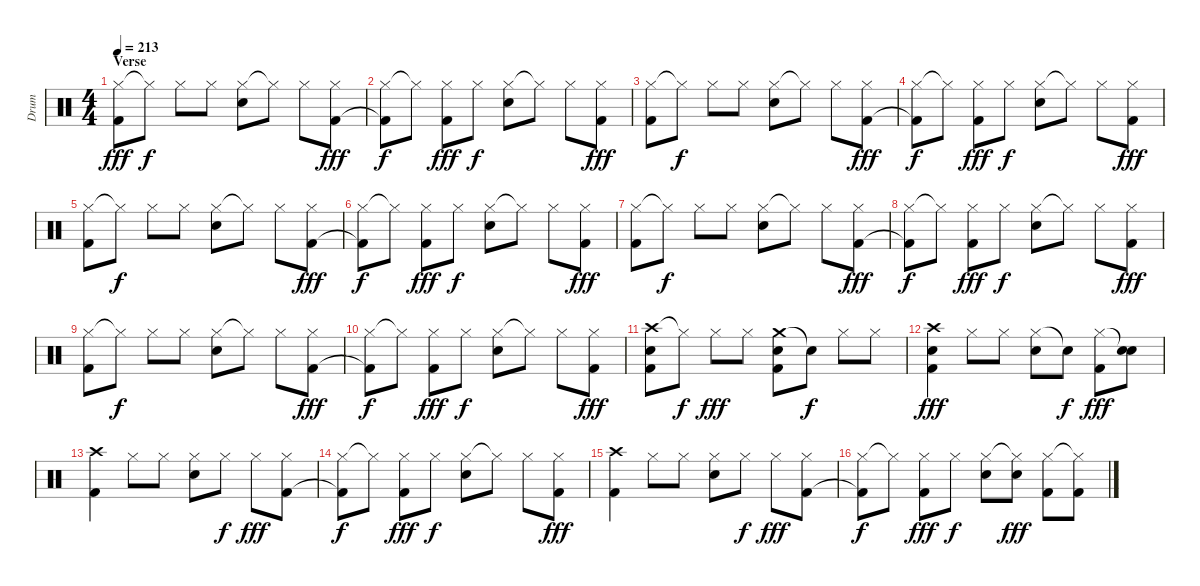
\track ("Drum" "Drum") {instrument percussion}
\staff {score}
\articulation defaults
\ts (4 4)
\section ("" "Verse")
\tempo 213
\clef neutral
\ks c
("Hi-Hat (closed)" "Kick (hit) 2").8{dy fff} "Hi-Hat (closed)"{t}.8{dy f} "Hi-Hat (closed)".8 "Hi-Hat (closed)".8 ("Hi-Hat (closed)" "Snare (hit) 2").8 "Hi-Hat (closed)"{t}.8 "Hi-Hat (closed)".8 ("Hi-Hat (closed)" "Kick (hit) 2").8{dy fff} |
("Hi-Hat (closed)" "Kick (hit) 2"{t}).8{dy f} "Hi-Hat (closed)"{t}.8 ("Hi-Hat (closed)" "Kick (hit) 2").8{dy fff} "Hi-Hat (closed)".8{dy f} ("Hi-Hat (closed)" "Snare (hit) 2").8 "Hi-Hat (closed)"{t}.8 "Hi-Hat (closed)".8 ("Hi-Hat (closed)" "Kick (hit) 2").8{dy fff} |
("Hi-Hat (closed)" "Kick (hit) 2").8 "Hi-Hat (closed)"{t}.8{dy f} "Hi-Hat (closed)".8 "Hi-Hat (closed)".8 ("Hi-Hat (closed)" "Snare (hit) 2").8 "Hi-Hat (closed)"{t}.8 "Hi-Hat (closed)".8 ("Hi-Hat (closed)" "Kick (hit) 2").8{dy fff} |
("Hi-Hat (closed)" "Kick (hit) 2"{t}).8{dy f} "Hi-Hat (closed)"{t}.8 ("Hi-Hat (closed)" "Kick (hit) 2").8{dy fff} "Hi-Hat (closed)".8{dy f} ("Hi-Hat (closed)" "Snare (hit) 2").8 "Hi-Hat (closed)"{t}.8 "Hi-Hat (closed)".8 ("Hi-Hat (closed)" "Kick (hit) 2").8{dy fff} |
("Hi-Hat (closed)" "Kick (hit) 2").8 "Hi-Hat (closed)"{t}.8{dy f} "Hi-Hat (closed)".8 "Hi-Hat (closed)".8 ("Hi-Hat (closed)" "Snare (hit) 2").8 "Hi-Hat (closed)"{t}.8 "Hi-Hat (closed)".8 ("Hi-Hat (closed)" "Kick (hit) 2").8{dy fff} |
("Hi-Hat (closed)" "Kick (hit) 2"{t}).8{dy f} "Hi-Hat (closed)"{t}.8 ("Hi-Hat (closed)" "Kick (hit) 2").8{dy fff} "Hi-Hat (closed)".8{dy f} ("Hi-Hat (closed)" "Snare (hit) 2").8 "Hi-Hat (closed)"{t}.8 "Hi-Hat (closed)".8 ("Hi-Hat (closed)" "Kick (hit) 2").8{dy fff} |
("Hi-Hat (closed)" "Kick (hit) 2").8 "Hi-Hat (closed)"{t}.8{dy f} "Hi-Hat (closed)".8 "Hi-Hat (closed)".8 ("Hi-Hat (closed)" "Snare (hit) 2").8 "Hi-Hat (closed)"{t}.8 "Hi-Hat (closed)".8 ("Hi-Hat (closed)" "Kick (hit) 2").8{dy fff} |
("Hi-Hat (closed)" "Kick (hit) 2"{t}).8{dy f} "Hi-Hat (closed)"{t}.8 ("Hi-Hat (closed)" "Kick (hit) 2").8{dy fff} "Hi-Hat (closed)".8{dy f} ("Hi-Hat (closed)" "Snare (hit) 2").8 "Hi-Hat (closed)"{t}.8 "Hi-Hat (closed)".8 ("Hi-Hat (closed)" "Kick (hit) 2").8{dy fff} |
("Hi-Hat (closed)" "Kick (hit) 2").8 "Hi-Hat (closed)"{t}.8{dy f} "Hi-Hat (closed)".8 "Hi-Hat (closed)".8 ("Hi-Hat (closed)" "Snare (hit) 2").8 "Hi-Hat (closed)"{t}.8 "Hi-Hat (closed)".8 ("Hi-Hat (closed)" "Kick (hit) 2").8{dy fff} |
("Hi-Hat (closed)" "Kick (hit) 2"{t}).8{dy f} "Hi-Hat (closed)"{t}.8 ("Hi-Hat (closed)" "Kick (hit) 2").8{dy fff} "Hi-Hat (closed)".8{dy f} ("Hi-Hat (closed)" "Snare (hit) 2").8 "Hi-Hat (closed)"{t}.8 "Hi-Hat (closed)".8 ("Hi-Hat (closed)" "Kick (hit) 2").8{dy fff} |
("Crash high (hit)" "Snare (hit) 2" "Kick (hit) 2").8 "Hi-Hat (closed)"{t}.8{dy f} "Hi-Hat (closed)".8{dy fff} "Hi-Hat (closed)".8 ("Crash medium (hit)" "Snare (hit) 2" "Kick (hit) 2").8 "Snare (hit)"{t}.8{dy f} "Hi-Hat (closed)".8 "Hi-Hat (closed)".8 |
("Crash high (hit)" "Snare (hit) 2" "Kick (hit) 2").4{dy fff} "Hi-Hat (closed)".8 "Hi-Hat (closed)".8 ("Hi-Hat (closed)" "Snare (hit) 2").8 "Snare (hit)"{t}.8{dy f} ("Hi-Hat (closed)" "Kick (hit) 2").8{dy fff} ("Snare (hit)"{t} "Snare (hit) 2").8 |
("Crash high (hit)" "Kick (hit) 2").4 "Hi-Hat (closed)".8 "Hi-Hat (closed)".8 ("Hi-Hat (closed)" "Snare (hit) 2").8 "Hi-Hat (closed)".8{dy f} "Hi-Hat (closed)".8{dy fff} ("Hi-Hat (closed)" "Kick (hit) 2").8 |
("Hi-Hat (closed)" "Kick (hit) 2"{t}).8{dy f} "Hi-Hat (closed)"{t}.8 ("Hi-Hat (closed)" "Kick (hit) 2").8{dy fff} "Hi-Hat (closed)".8{dy f} ("Hi-Hat (closed)" "Snare (hit) 2").8 "Hi-Hat (closed)"{t}.8 "Hi-Hat (closed)".8 ("Hi-Hat (closed)" "Kick (hit) 2").8{dy fff} |
("Crash high (hit)" "Kick (hit) 2").4 "Hi-Hat (closed)".8 "Hi-Hat (closed)".8 ("Hi-Hat (closed)" "Snare (hit) 2").8 "Hi-Hat (closed)".8{dy f} "Hi-Hat (closed)".8{dy fff} ("Hi-Hat (closed)" "Kick (hit) 2").8 |
("Hi-Hat (closed)" "Kick (hit) 2"{t}).8{dy f} "Hi-Hat (closed)"{t}.8 ("Hi-Hat (closed)" "Kick (hit) 2").8{dy fff} "Hi-Hat (closed)".8{dy f} ("Hi-Hat (closed)" "Snare (hit) 2").8 ("Hi-Hat (closed)"{t} "Snare (hit) 2").8{dy fff} ("Hi-Hat (closed)" "Kick (hit) 2").8 ("Hi-Hat (closed)"{t} "Kick (hit) 2").8
